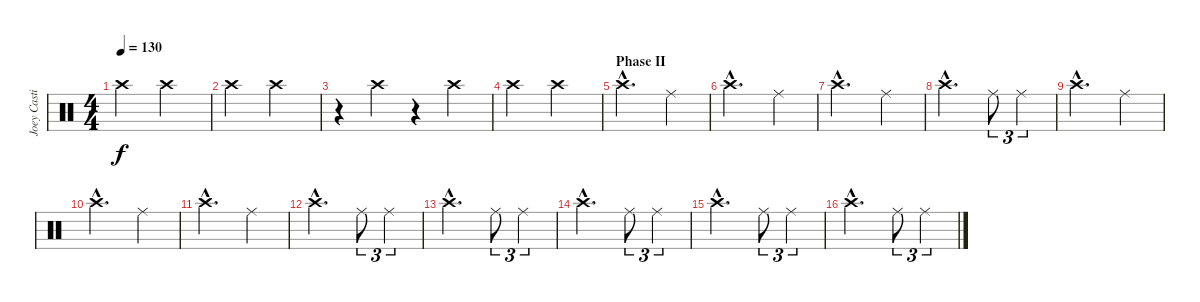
\track ("Joey Castillo" "Joey Casti") {instrument percussion}
\staff {score}
\articulation defaults
\ts (4 4)
\tempo 130
\clef neutral
\ks c "Crash high (hit)".2{dy f} "Crash high (hit)".2
|
"Crash high (hit)".2 "Crash high (hit)".2 |
r.4 "Crash high (hit)".4 r.4 "Crash high (hit)".4 |
"Crash high (hit)".2 "Crash high (hit)".2 |
\section ("" "Phase II")
"Crash high (hit)"{hac}.2{d} "Ride (middle)".4 |
"Crash high (hit)"{hac}.2{d} "Ride (middle)".4 |
"Crash high (hit)"{hac}.2{d} "Ride (middle)".4 |
"Crash high (hit)"{hac}.2{d} "Ride (middle)".8{tu (3 2)} "Ride (middle)".4{tu (3 2)} |
"Crash high (hit)"{hac}.2{d} "Ride (middle)".4 |
"Crash high (hit)"{hac}.2{d} "Ride (middle)".4 |
"Crash high (hit)"{hac}.2{d} "Ride (middle)".4 |
"Crash high (hit)"{hac}.2{d} "Ride (middle)".8{tu (3 2)} "Ride (middle)".4{tu (3 2)} |
"Crash high (hit)"{hac}.2{d} "Ride (middle)".8{tu (3 2)} "Ride (middle)".4{tu (3 2)} |
"Crash high (hit)"{hac}.2{d} "Ride (middle)".8{tu (3 2)} "Ride (middle)".4{tu (3 2)} |
"Crash high (hit)"{hac}.2{d} "Ride (middle)".8{tu (3 2)} "Ride (middle)".4{tu (3 2)} |
"Crash high (hit)"{hac}.2{d} "Ride (middle)".8{tu (3 2)} "Ride (middle)".4{tu (3 2)}
